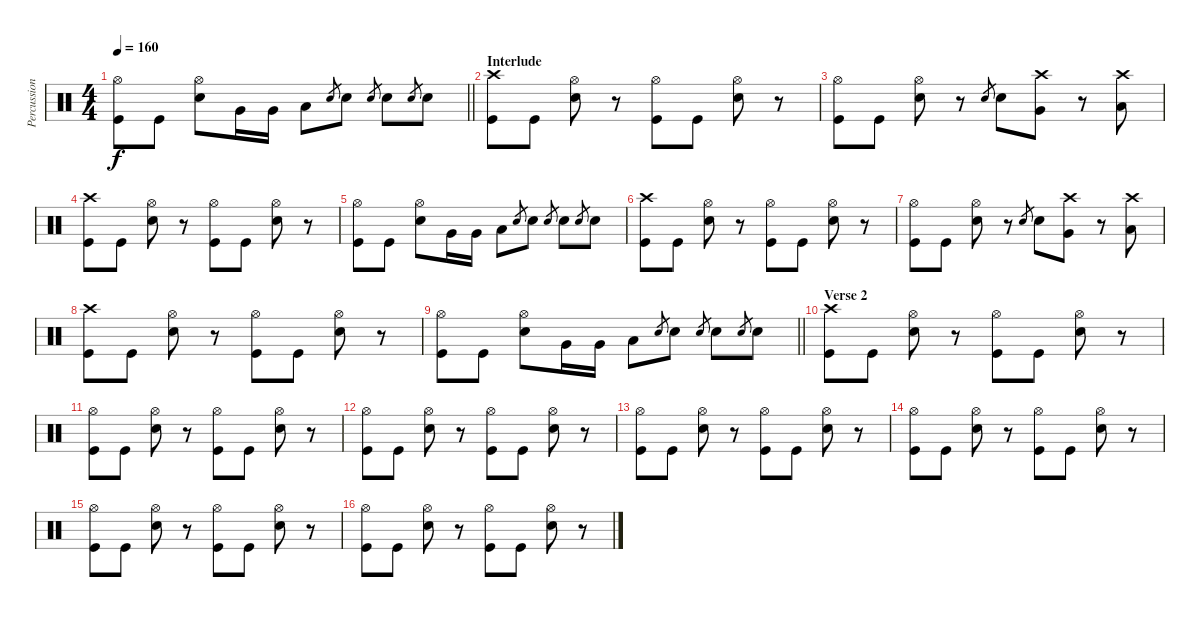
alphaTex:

\track ("Percussion" "Percussion") {instrument percussion}
\staff {score}
\articulation defaults
\ts (4 4)
\tempo 160
\clef neutral
\barLineRight lightlight
\ks c
("Hi-Hat (open)" "Kick (hit)").8{dy f} "Kick (hit)".8 ("Hi-Hat (open)" "Electric Snare (hit)").8 "Very Low Tom (hit)".16 "Very Low Tom (hit)".16 "Low Floor Tom (hit)".8 "Electric Snare (hit)".8{gr} "Electric Snare (hit)".8 "Electric Snare (hit)".8{gr} "Electric Snare (hit)".8 "Electric Snare (hit)".8{gr} "Electric Snare (hit)".8 |
\section ("" "Interlude")
("Crash high (hit)" "Kick (hit)").8 "Kick (hit)".8 ("Hi-Hat (open)" "Electric Snare (hit)").8 r.8 ("Hi-Hat (open)" "Kick (hit)").8 "Kick (hit)".8 ("Hi-Hat (open)" "Electric Snare (hit)").8 r.8 |
("Hi-Hat (open)" "Kick (hit)").8 "Kick (hit)".8 ("Hi-Hat (open)" "Electric Snare (hit)").8 r.8 "Electric Snare (hit)".8{gr} "Electric Snare (hit)".8 ("Crash high (hit)" "Very Low Tom (hit)").8 r.8 ("Crash high (hit)" "Low Floor Tom (hit)").8 |
("Crash high (hit)" "Kick (hit)").8 "Kick (hit)".8 ("Hi-Hat (open)" "Electric Snare (hit)").8 r.8 ("Hi-Hat (open)" "Kick (hit)").8 "Kick (hit)".8 ("Hi-Hat (open)" "Electric Snare (hit)").8 r.8 |
("Hi-Hat (open)" "Kick (hit)").8 "Kick (hit)".8 ("Hi-Hat (open)" "Electric Snare (hit)").8 "Very Low Tom (hit)".16 "Very Low Tom (hit)".16 "Low Floor Tom (hit)".8 "Electric Snare (hit)".8{gr} "Electric Snare (hit)".8 "Electric Snare (hit)".8{gr} "Electric Snare (hit)".8 "Electric Snare (hit)".8{gr} "Electric Snare (hit)".8 |
("Crash high (hit)" "Kick (hit)").8 "Kick (hit)".8 ("Hi-Hat (open)" "Electric Snare (hit)").8 r.8 ("Hi-Hat (open)" "Kick (hit)").8 "Kick (hit)".8 ("Hi-Hat (open)" "Electric Snare (hit)").8 r.8 |
("Hi-Hat (open)" "Kick (hit)").8 "Kick (hit)".8 ("Hi-Hat (open)" "Electric Snare (hit)").8 r.8 "Electric Snare (hit)".8{gr} "Electric Snare (hit)".8 ("Crash high (hit)" "Very Low Tom (hit)").8 r.8 ("Crash high (hit)" "Low Floor Tom (hit)").8 |
("Crash high (hit)" "Kick (hit)").8 "Kick (hit)".8 ("Hi-Hat (open)" "Electric Snare (hit)").8 r.8 ("Hi-Hat (open)" "Kick (hit)").8 "Kick (hit)".8 ("Hi-Hat (open)" "Electric Snare (hit)").8 r.8 |
\barLineRight lightlight
("Hi-Hat (open)" "Kick (hit)").8 "Kick (hit)".8 ("Hi-Hat (open)" "Electric Snare (hit)").8 "Very Low Tom (hit)".16 "Very Low Tom (hit)".16 "Low Floor Tom (hit)".8 "Electric Snare (hit)".8{gr} "Electric Snare (hit)".8 "Electric Snare (hit)".8{gr} "Electric Snare (hit)".8 "Electric Snare (hit)".8{gr} "Electric Snare (hit)".8 |
\section ("" "Verse 2")
("Crash high (hit)" "Kick (hit)").8 "Kick (hit)".8 ("Hi-Hat (open)" "Electric Snare (hit)").8 r.8 ("Hi-Hat (open)" "Kick (hit)").8 "Kick (hit)".8 ("Hi-Hat (open)" "Electric Snare (hit)").8 r.8 |
("Hi-Hat (open)" "Kick (hit)").8 "Kick (hit)".8 ("Hi-Hat (open)" "Electric Snare (hit)").8 r.8 ("Hi-Hat (open)" "Kick (hit)").8 "Kick (hit)".8 ("Hi-Hat (open)" "Electric Snare (hit)").8 r.8 |
("Hi-Hat (open)" "Kick (hit)").8 "Kick (hit)".8 ("Hi-Hat (open)" "Electric Snare (hit)").8 r.8 ("Hi-Hat (open)" "Kick (hit)").8 "Kick (hit)".8 ("Hi-Hat (open)" "Electric Snare (hit)").8 r.8 |
("Hi-Hat (open)" "Kick (hit)").8 "Kick (hit)".8 ("Hi-Hat (open)" "Electric Snare (hit)").8 r.8 ("Hi-Hat (open)" "Kick (hit)").8 "Kick (hit)".8 ("Hi-Hat (open)" "Electric Snare (hit)").8 r.8 |
("Hi-Hat (open)" "Kick (hit)").8 "Kick (hit)".8 ("Hi-Hat (open)" "Electric Snare (hit)").8 r.8 ("Hi-Hat (open)" "Kick (hit)").8 "Kick (hit)".8 ("Hi-Hat (open)" "Electric Snare (hit)").8 r.8 |
("Hi-Hat (open)" "Kick (hit)").8 "Kick (hit)".8 ("Hi-Hat (open)" "Electric Snare (hit)").8 r.8 ("Hi-Hat (open)" "Kick (hit)").8 "Kick (hit)".8 ("Hi-Hat (open)" "Electric Snare (hit)").8 r.8 |
("Hi-Hat (open)" "Kick (hit)").8 "Kick (hit)".8 ("Hi-Hat (open)" "Electric Snare (hit)").8 r.8 ("Hi-Hat (open)" "Kick (hit)").8 "Kick (hit)".8 ("Hi-Hat (open)" "Electric Snare (hit)").8 r.8
